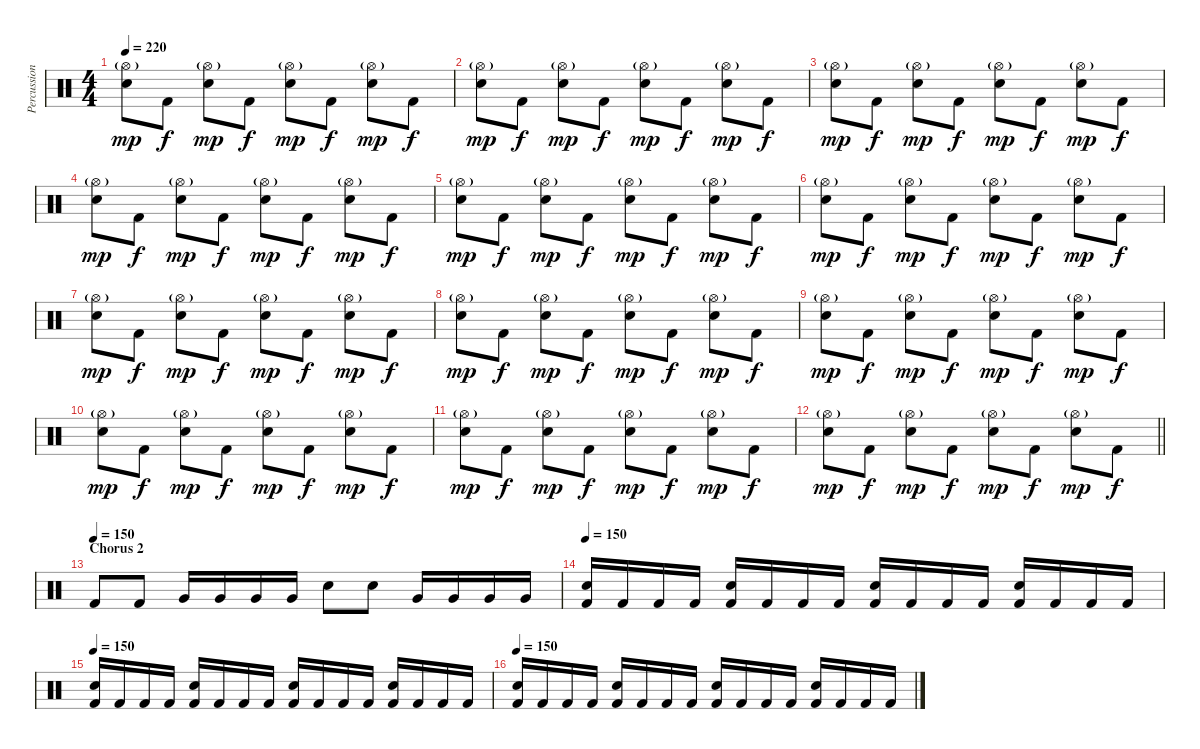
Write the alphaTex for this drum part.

\track ("Percussions" "Percussion") {instrument percussion}
\staff {score}
\articulation defaults
\ts (4 4)
\tempo 220
\clef neutral
\ks c
("Hi-Hat (open)"{g} "Electric Snare (hit)").8{dy mp} "Kick (hit) 2".8{dy f} ("Hi-Hat (open)"{g} "Electric Snare (hit)").8{dy mp} "Kick (hit) 2".8{dy f} ("Hi-Hat (open)"{g} "Electric Snare (hit)").8{dy mp} "Kick (hit) 2".8{dy f} ("Hi-Hat (open)"{g} "Electric Snare (hit)").8{dy mp} "Kick (hit) 2".8{dy f} |
("Hi-Hat (open)"{g} "Electric Snare (hit)").8{dy mp} "Kick (hit) 2".8{dy f} ("Hi-Hat (open)"{g} "Electric Snare (hit)").8{dy mp} "Kick (hit) 2".8{dy f} ("Hi-Hat (open)"{g} "Electric Snare (hit)").8{dy mp} "Kick (hit) 2".8{dy f} ("Hi-Hat (open)"{g} "Electric Snare (hit)").8{dy mp} "Kick (hit) 2".8{dy f} |
("Hi-Hat (open)"{g} "Electric Snare (hit)").8{dy mp} "Kick (hit) 2".8{dy f} ("Hi-Hat (open)"{g} "Electric Snare (hit)").8{dy mp} "Kick (hit) 2".8{dy f} ("Hi-Hat (open)"{g} "Electric Snare (hit)").8{dy mp} "Kick (hit) 2".8{dy f} ("Hi-Hat (open)"{g} "Electric Snare (hit)").8{dy mp} "Kick (hit) 2".8{dy f} |
("Hi-Hat (open)"{g} "Electric Snare (hit)").8{dy mp} "Kick (hit) 2".8{dy f} ("Hi-Hat (open)"{g} "Electric Snare (hit)").8{dy mp} "Kick (hit) 2".8{dy f} ("Hi-Hat (open)"{g} "Electric Snare (hit)").8{dy mp} "Kick (hit) 2".8{dy f} ("Hi-Hat (open)"{g} "Electric Snare (hit)").8{dy mp} "Kick (hit) 2".8{dy f} |
("Hi-Hat (open)"{g} "Electric Snare (hit)").8{dy mp} "Kick (hit) 2".8{dy f} ("Hi-Hat (open)"{g} "Electric Snare (hit)").8{dy mp} "Kick (hit) 2".8{dy f} ("Hi-Hat (open)"{g} "Electric Snare (hit)").8{dy mp} "Kick (hit) 2".8{dy f} ("Hi-Hat (open)"{g} "Electric Snare (hit)").8{dy mp} "Kick (hit) 2".8{dy f} |
("Hi-Hat (open)"{g} "Electric Snare (hit)").8{dy mp} "Kick (hit) 2".8{dy f} ("Hi-Hat (open)"{g} "Electric Snare (hit)").8{dy mp} "Kick (hit) 2".8{dy f} ("Hi-Hat (open)"{g} "Electric Snare (hit)").8{dy mp} "Kick (hit) 2".8{dy f} ("Hi-Hat (open)"{g} "Electric Snare (hit)").8{dy mp} "Kick (hit) 2".8{dy f} |
("Hi-Hat (open)"{g} "Electric Snare (hit)").8{dy mp} "Kick (hit) 2".8{dy f} ("Hi-Hat (open)"{g} "Electric Snare (hit)").8{dy mp} "Kick (hit) 2".8{dy f} ("Hi-Hat (open)"{g} "Electric Snare (hit)").8{dy mp} "Kick (hit) 2".8{dy f} ("Hi-Hat (open)"{g} "Electric Snare (hit)").8{dy mp} "Kick (hit) 2".8{dy f} |
("Hi-Hat (open)"{g} "Electric Snare (hit)").8{dy mp} "Kick (hit) 2".8{dy f} ("Hi-Hat (open)"{g} "Electric Snare (hit)").8{dy mp} "Kick (hit) 2".8{dy f} ("Hi-Hat (open)"{g} "Electric Snare (hit)").8{dy mp} "Kick (hit) 2".8{dy f} ("Hi-Hat (open)"{g} "Electric Snare (hit)").8{dy mp} "Kick (hit) 2".8{dy f} |
("Hi-Hat (open)"{g} "Electric Snare (hit)").8{dy mp} "Kick (hit) 2".8{dy f} ("Hi-Hat (open)"{g} "Electric Snare (hit)").8{dy mp} "Kick (hit) 2".8{dy f} ("Hi-Hat (open)"{g} "Electric Snare (hit)").8{dy mp} "Kick (hit) 2".8{dy f} ("Hi-Hat (open)"{g} "Electric Snare (hit)").8{dy mp} "Kick (hit) 2".8{dy f} |
("Hi-Hat (open)"{g} "Electric Snare (hit)").8{dy mp} "Kick (hit) 2".8{dy f} ("Hi-Hat (open)"{g} "Electric Snare (hit)").8{dy mp} "Kick (hit) 2".8{dy f} ("Hi-Hat (open)"{g} "Electric Snare (hit)").8{dy mp} "Kick (hit) 2".8{dy f} ("Hi-Hat (open)"{g} "Electric Snare (hit)").8{dy mp} "Kick (hit) 2".8{dy f} |
("Hi-Hat (open)"{g} "Electric Snare (hit)").8{dy mp} "Kick (hit) 2".8{dy f} ("Hi-Hat (open)"{g} "Electric Snare (hit)").8{dy mp} "Kick (hit) 2".8{dy f} ("Hi-Hat (open)"{g} "Electric Snare (hit)").8{dy mp} "Kick (hit) 2".8{dy f} ("Hi-Hat (open)"{g} "Electric Snare (hit)").8{dy mp} "Kick (hit) 2".8{dy f} |
\barLineRight lightlight
("Hi-Hat (open)"{g} "Electric Snare (hit)").8{dy mp} "Kick (hit) 2".8{dy f} ("Hi-Hat (open)"{g} "Electric Snare (hit)").8{dy mp} "Kick (hit) 2".8{dy f} ("Hi-Hat (open)"{g} "Electric Snare (hit)").8{dy mp} "Kick (hit) 2".8{dy f} ("Hi-Hat (open)"{g} "Electric Snare (hit)").8{dy mp} "Kick (hit) 2".8{dy f} |
\section ("" "Chorus 2")
\tempo (150)
"Kick (hit) 2".8 "Kick (hit) 2".8 "Very Low Tom (hit)".16 "Very Low Tom (hit)".16 "Very Low Tom (hit)".16 "Very Low Tom (hit)".16 "Electric Snare (hit)".8 "Electric Snare (hit)".8 "Very Low Tom (hit)".16 "Very Low Tom (hit)".16 "Very Low Tom (hit)".16 "Very Low Tom (hit)".16 |
\tempo 150
("Electric Snare (hit)" "Kick (hit) 2").16 "Kick (hit) 2".16 "Kick (hit) 2".16 "Kick (hit) 2".16 ("Electric Snare (hit)" "Kick (hit) 2").16 "Kick (hit) 2".16 "Kick (hit) 2".16 "Kick (hit) 2".16 ("Electric Snare (hit)" "Kick (hit) 2").16 "Kick (hit) 2".16 "Kick (hit) 2".16 "Kick (hit) 2".16 ("Electric Snare (hit)" "Kick (hit) 2").16 "Kick (hit) 2".16 "Kick (hit) 2".16 "Kick (hit) 2".16 |
\tempo 150
("Electric Snare (hit)" "Kick (hit) 2").16 "Kick (hit) 2".16 "Kick (hit) 2".16 "Kick (hit) 2".16 ("Electric Snare (hit)" "Kick (hit) 2").16 "Kick (hit) 2".16 "Kick (hit) 2".16 "Kick (hit) 2".16 ("Electric Snare (hit)" "Kick (hit) 2").16 "Kick (hit) 2".16 "Kick (hit) 2".16 "Kick (hit) 2".16 ("Electric Snare (hit)" "Kick (hit) 2").16 "Kick (hit) 2".16 "Kick (hit) 2".16 "Kick (hit) 2".16 |
\tempo 150
("Electric Snare (hit)" "Kick (hit) 2").16 "Kick (hit) 2".16 "Kick (hit) 2".16 "Kick (hit) 2".16 ("Electric Snare (hit)" "Kick (hit) 2").16 "Kick (hit) 2".16 "Kick (hit) 2".16 "Kick (hit) 2".16 ("Electric Snare (hit)" "Kick (hit) 2").16 "Kick (hit) 2".16 "Kick (hit) 2".16 "Kick (hit) 2".16 ("Electric Snare (hit)" "Kick (hit) 2").16 "Kick (hit) 2".16 "Kick (hit) 2".16 "Kick (hit) 2".16
